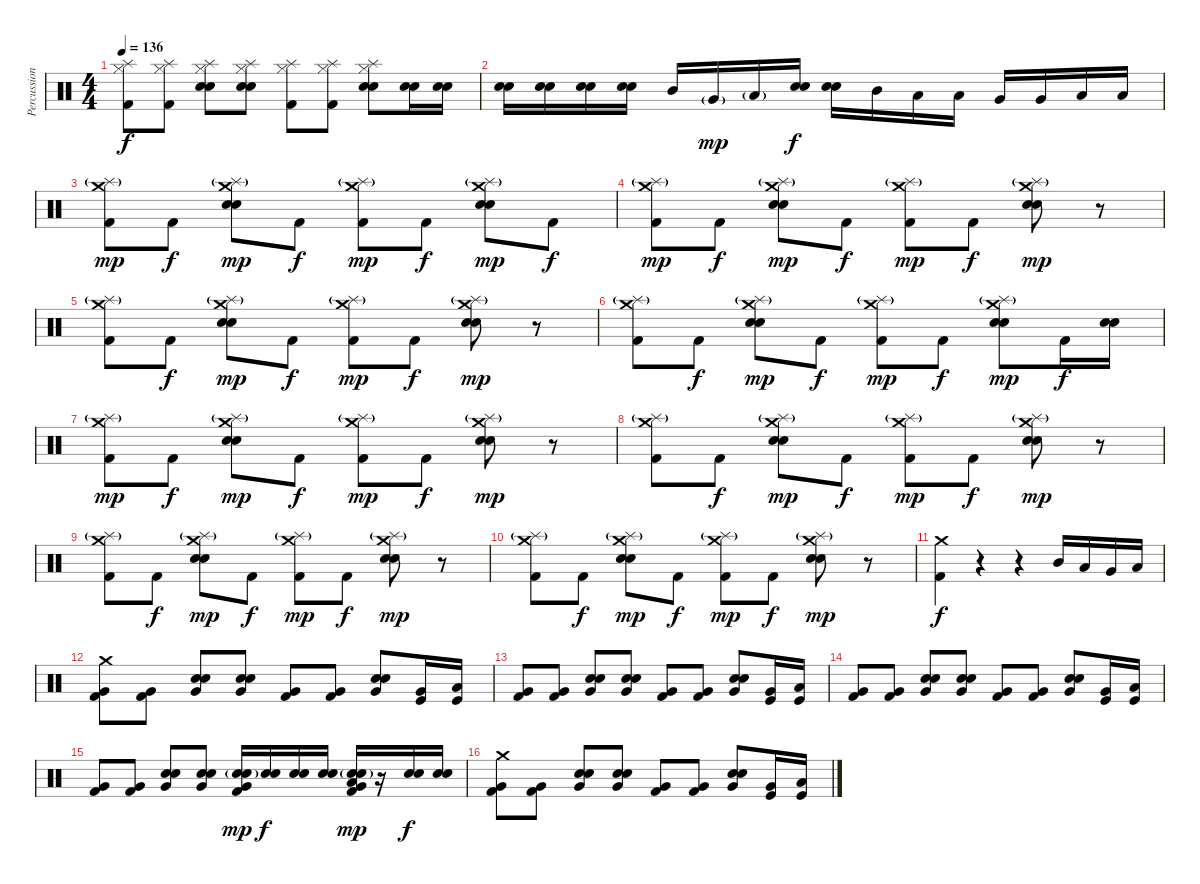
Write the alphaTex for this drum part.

\track ("Percussion" "Percussion") {instrument percussion}
\staff {score}
\articulation defaults
\ts (4 4)
\tempo 136
\clef neutral
\ks c
("Hi-Hat (closed)" "Splash (hit)" "Kick (hit) 2").8{dy f} ("Hi-Hat (closed)" "Splash (hit)" "Kick (hit) 2").8 ("Hi-Hat (closed)" "Splash (hit)" "Electric Snare (hit)" "Snare (hit) 2").8 ("Hi-Hat (closed)" "Splash (hit)" "Electric Snare (hit)" "Snare (hit) 2").8 ("Hi-Hat (closed)" "Splash (hit)" "Kick (hit) 2").8 ("Hi-Hat (closed)" "Splash (hit)" "Kick (hit) 2").8 ("Hi-Hat (closed)" "Splash (hit)" "Electric Snare (hit)" "Snare (hit) 2").8 ("Electric Snare (hit)" "Snare (hit) 2").16 ("Electric Snare (hit)" "Snare (hit) 2").16 |
("Electric Snare (hit)" "Snare (hit) 2").16 ("Electric Snare (hit)" "Snare (hit) 2").16 ("Electric Snare (hit)" "Snare (hit) 2").16 ("Electric Snare (hit)" "Snare (hit) 2").16 "Mid Tom (hit)".16 "Very Low Tom (hit)"{g}.16{dy mp} "Low Floor Tom (hit)"{g}.16 ("Electric Snare (hit)" "Snare (hit) 2").16{dy f} ("Electric Snare (hit)" "Snare (hit) 2").16 "Mid Tom (hit)".16 "Low Tom (hit)".16 "Low Tom (hit)".16 "Very Low Tom (hit)".16 "Very Low Tom (hit)".16 "Low Floor Tom (hit)".16 "Low Floor Tom (hit)".16 |
("Splash (hit)"{g} "Crash medium (hit)" "Kick (hit) 2").8{dy mp} "Kick (hit) 2".8{dy f} ("Splash (hit)"{g} "Crash medium (hit)" "Snare (hit) 2" "Electric Snare (hit)").8{dy mp} "Kick (hit) 2".8{dy f} ("Splash (hit)"{g} "Crash medium (hit)" "Kick (hit) 2").8{dy mp} "Kick (hit) 2".8{dy f} ("Splash (hit)"{g} "Crash medium (hit)" "Snare (hit) 2" "Electric Snare (hit)").8{dy mp} "Kick (hit) 2".8{dy f} |
("Splash (hit)"{g} "Crash medium (hit)" "Kick (hit) 2").8{dy mp} "Kick (hit) 2".8{dy f} ("Splash (hit)"{g} "Crash medium (hit)" "Snare (hit) 2" "Electric Snare (hit)").8{dy mp} "Kick (hit) 2".8{dy f} ("Splash (hit)"{g} "Crash medium (hit)" "Kick (hit) 2").8{dy mp} "Kick (hit) 2".8{dy f} ("Splash (hit)"{g} "Crash medium (hit)" "Snare (hit) 2" "Electric Snare (hit)").8{dy mp} r.8 |
("Splash (hit)"{g} "Crash medium (hit)" "Kick (hit) 2").8 "Kick (hit) 2".8{dy f} ("Splash (hit)"{g} "Crash medium (hit)" "Snare (hit) 2" "Electric Snare (hit)").8{dy mp} "Kick (hit) 2".8{dy f} ("Splash (hit)"{g} "Crash medium (hit)" "Kick (hit) 2").8{dy mp} "Kick (hit) 2".8{dy f} ("Splash (hit)"{g} "Crash medium (hit)" "Snare (hit) 2" "Electric Snare (hit)").8{dy mp} r.8 |
("Splash (hit)"{g} "Crash medium (hit)" "Kick (hit) 2").8 "Kick (hit) 2".8{dy f} ("Splash (hit)"{g} "Crash medium (hit)" "Snare (hit) 2" "Electric Snare (hit)").8{dy mp} "Kick (hit) 2".8{dy f} ("Splash (hit)"{g} "Crash medium (hit)" "Kick (hit) 2").8{dy mp} "Kick (hit) 2".8{dy f} ("Splash (hit)"{g} "Crash medium (hit)" "Snare (hit) 2" "Electric Snare (hit)").8{dy mp} "Kick (hit) 2".16{dy f} ("Snare (hit) 2" "Electric Snare (hit)").16 |
("Splash (hit)"{g} "Crash medium (hit)" "Kick (hit) 2").8{dy mp} "Kick (hit) 2".8{dy f} ("Splash (hit)"{g} "Crash medium (hit)" "Snare (hit) 2" "Electric Snare (hit)").8{dy mp} "Kick (hit) 2".8{dy f} ("Splash (hit)"{g} "Crash medium (hit)" "Kick (hit) 2").8{dy mp} "Kick (hit) 2".8{dy f} ("Splash (hit)"{g} "Crash medium (hit)" "Snare (hit) 2" "Electric Snare (hit)").8{dy mp} r.8 |
("Splash (hit)"{g} "Crash medium (hit)" "Kick (hit) 2").8 "Kick (hit) 2".8{dy f} ("Splash (hit)"{g} "Crash medium (hit)" "Snare (hit) 2" "Electric Snare (hit)").8{dy mp} "Kick (hit) 2".8{dy f} ("Splash (hit)"{g} "Crash medium (hit)" "Kick (hit) 2").8{dy mp} "Kick (hit) 2".8{dy f} ("Splash (hit)"{g} "Crash medium (hit)" "Snare (hit) 2" "Electric Snare (hit)").8{dy mp} r.8 |
("Splash (hit)"{g} "Crash medium (hit)" "Kick (hit) 2").8 "Kick (hit) 2".8{dy f} ("Splash (hit)"{g} "Crash medium (hit)" "Snare (hit) 2" "Electric Snare (hit)").8{dy mp} "Kick (hit) 2".8{dy f} ("Splash (hit)"{g} "Crash medium (hit)" "Kick (hit) 2").8{dy mp} "Kick (hit) 2".8{dy f} ("Splash (hit)"{g} "Crash medium (hit)" "Snare (hit) 2" "Electric Snare (hit)").8{dy mp} r.8 |
("Splash (hit)"{g} "Crash medium (hit)" "Kick (hit) 2").8 "Kick (hit) 2".8{dy f} ("Splash (hit)"{g} "Crash medium (hit)" "Snare (hit) 2" "Electric Snare (hit)").8{dy mp} "Kick (hit) 2".8{dy f} ("Splash (hit)"{g} "Crash medium (hit)" "Kick (hit) 2").8{dy mp} "Kick (hit) 2".8{dy f} ("Splash (hit)"{g} "Crash medium (hit)" "Snare (hit) 2" "Electric Snare (hit)").8{dy mp} r.8 |
("Crash medium (hit)" "Kick (hit) 2").4{dy f} r.4 r.4 "Mid Tom (hit)".16 "Low Tom (hit)".16 "Very Low Tom (hit)".16 "Low Floor Tom (hit)".16 |
("Crash medium (hit)" "Very Low Tom (hit)" "Kick (hit) 2").8 ("Very Low Tom (hit)" "Kick (hit) 2").8 ("Electric Snare (hit)" "Snare (hit) 2" "Very Low Tom (hit)").8 ("Electric Snare (hit)" "Snare (hit) 2" "Very Low Tom (hit)").8 ("Very Low Tom (hit)" "Kick (hit) 2").8 ("Very Low Tom (hit)" "Kick (hit) 2").8 ("Snare (hit) 2" "Electric Snare (hit)" "Very Low Tom (hit)").8 ("Very Low Tom (hit)" "Kick (hit)").16 ("Low Floor Tom (hit)" "Kick (hit)").16 |
("Very Low Tom (hit)" "Kick (hit) 2").8 ("Very Low Tom (hit)" "Kick (hit) 2").8 ("Electric Snare (hit)" "Snare (hit) 2" "Very Low Tom (hit)").8 ("Electric Snare (hit)" "Snare (hit) 2" "Very Low Tom (hit)").8 ("Very Low Tom (hit)" "Kick (hit) 2").8 ("Very Low Tom (hit)" "Kick (hit) 2").8 ("Snare (hit) 2" "Electric Snare (hit)" "Very Low Tom (hit)").8 ("Very Low Tom (hit)" "Kick (hit)").16 ("Low Floor Tom (hit)" "Kick (hit)").16 |
("Very Low Tom (hit)" "Kick (hit) 2").8 ("Very Low Tom (hit)" "Kick (hit) 2").8 ("Electric Snare (hit)" "Snare (hit) 2" "Very Low Tom (hit)").8 ("Electric Snare (hit)" "Snare (hit) 2" "Very Low Tom (hit)").8 ("Very Low Tom (hit)" "Kick (hit) 2").8 ("Very Low Tom (hit)" "Kick (hit) 2").8 ("Snare (hit) 2" "Electric Snare (hit)" "Very Low Tom (hit)").8 ("Very Low Tom (hit)" "Kick (hit)").16 ("Low Floor Tom (hit)" "Kick (hit)").16 |
("Very Low Tom (hit)" "Kick (hit) 2").8 ("Very Low Tom (hit)" "Kick (hit) 2").8 ("Electric Snare (hit)" "Snare (hit) 2" "Very Low Tom (hit)").8 ("Electric Snare (hit)" "Snare (hit) 2" "Very Low Tom (hit)").8 ("Very Low Tom (hit)" "Snare (hit) 2"{g} "Electric Snare (hit)"{g} "Kick (hit) 2").16{dy mp} ("Snare (hit) 2" "Electric Snare (hit)").16{dy f} ("Snare (hit) 2" "Electric Snare (hit)").16 ("Snare (hit) 2" "Electric Snare (hit)").16 ("Low Floor Tom (hit)" "Very Low Tom (hit)" "Snare (hit) 2"{g} "Electric Snare (hit)"{g} "Kick (hit) 2").16{dy mp} r.16 ("Snare (hit) 2" "Electric Snare (hit)").16{dy f} ("Snare (hit) 2" "Electric Snare (hit)").16 |
("Crash medium (hit)" "Very Low Tom (hit)" "Kick (hit) 2").8 ("Very Low Tom (hit)" "Kick (hit) 2").8 ("Electric Snare (hit)" "Snare (hit) 2" "Very Low Tom (hit)").8 ("Electric Snare (hit)" "Snare (hit) 2" "Very Low Tom (hit)").8 ("Very Low Tom (hit)" "Kick (hit) 2").8 ("Very Low Tom (hit)" "Kick (hit) 2").8 ("Snare (hit) 2" "Electric Snare (hit)" "Very Low Tom (hit)").8 ("Very Low Tom (hit)" "Kick (hit)").16 ("Low Floor Tom (hit)" "Kick (hit)").16
